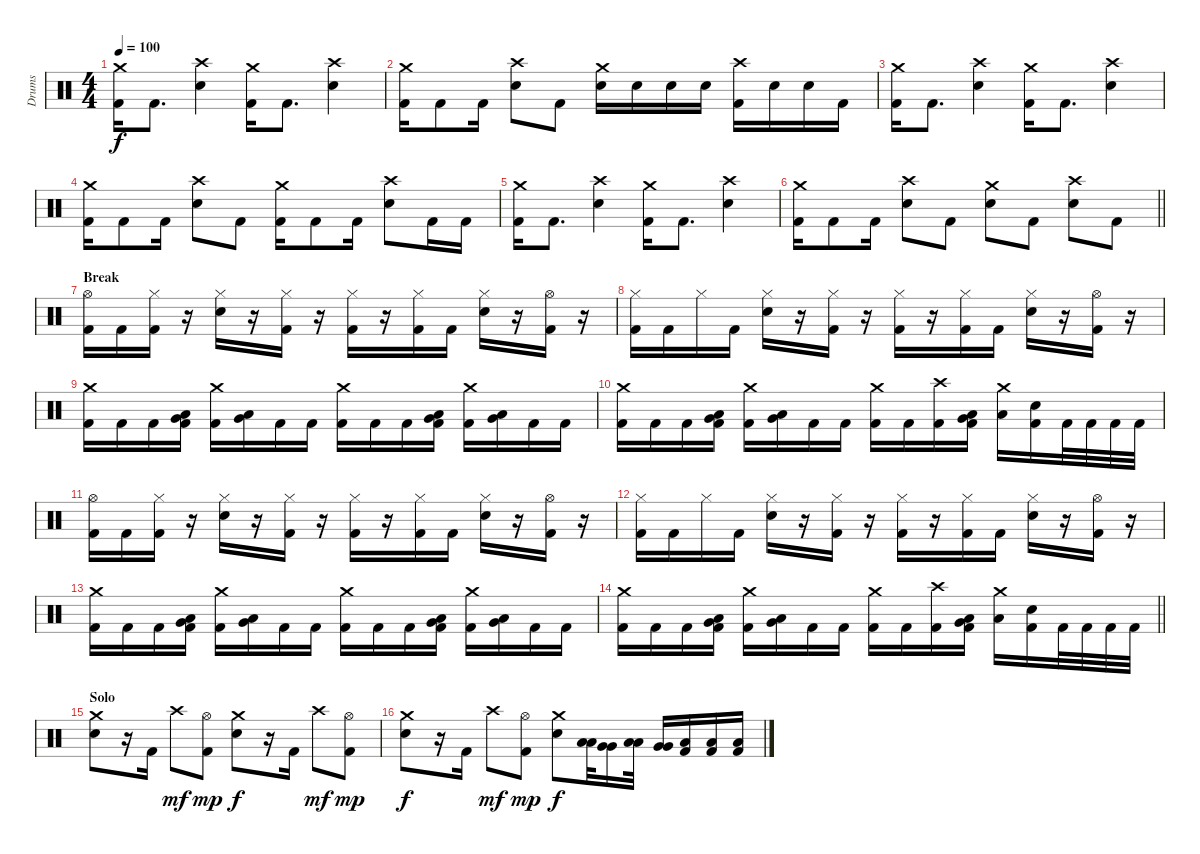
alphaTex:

\track ("Drums" "Drums") {instrument percussion}
\staff {score}
\articulation defaults
\ts (4 4)
\tempo 100
\clef neutral
\ks c
("Crash medium (hit)" "Kick (hit) 2").16{dy f} "Kick (hit) 2".8{d} ("Crash high (hit)" "Electric Snare (hit)").4 ("Crash medium (hit)" "Kick (hit) 2").16 "Kick (hit) 2".8{d} ("Crash high (hit)" "Electric Snare (hit)").4 |
("Crash medium (hit)" "Kick (hit) 2").16 "Kick (hit) 2".8 "Kick (hit) 2".16 ("Crash high (hit)" "Electric Snare (hit)").8 "Kick (hit) 2".8 ("Crash medium (hit)" "Electric Snare (hit)").16 "Electric Snare (hit)".16 "Electric Snare (hit)".16 "Electric Snare (hit)".16 ("Crash high (hit)" "Kick (hit) 2").16 "Electric Snare (hit)".16 "Electric Snare (hit)".16 "Kick (hit) 2".16 |
("Crash medium (hit)" "Kick (hit) 2").16 "Kick (hit) 2".8{d} ("Crash high (hit)" "Electric Snare (hit)").4 ("Crash medium (hit)" "Kick (hit) 2").16 "Kick (hit) 2".8{d} ("Crash high (hit)" "Electric Snare (hit)").4 |
("Crash medium (hit)" "Kick (hit) 2").16 "Kick (hit) 2".8 "Kick (hit) 2".16 ("Crash high (hit)" "Electric Snare (hit)").8 "Kick (hit) 2".8 ("Crash medium (hit)" "Kick (hit) 2").16 "Kick (hit) 2".8 "Kick (hit) 2".16 ("Crash high (hit)" "Electric Snare (hit)").8 "Kick (hit) 2".16 "Kick (hit) 2".16 |
("Crash medium (hit)" "Kick (hit) 2").16 "Kick (hit) 2".8{d} ("Crash high (hit)" "Electric Snare (hit)").4 ("Crash medium (hit)" "Kick (hit) 2").16 "Kick (hit) 2".8{d} ("Crash high (hit)" "Electric Snare (hit)").4 |
\barLineRight lightlight
("Crash medium (hit)" "Kick (hit) 2").16 "Kick (hit) 2".8 "Kick (hit) 2".16 ("Crash high (hit)" "Electric Snare (hit)").8 "Kick (hit) 2".8 ("Crash medium (hit)" "Electric Snare (hit)").8 "Kick (hit) 2".8 ("Crash high (hit)" "Electric Snare (hit)").8 "Kick (hit) 2".8 |
\section ("" "Break")
("Hi-Hat (open)" "Kick (hit) 2").16 "Kick (hit) 2".16 ("Hi-Hat (closed)" "Kick (hit) 2").16 r.16 ("Hi-Hat (closed)" "Electric Snare (hit)").16 r.16 ("Hi-Hat (closed)" "Kick (hit) 2").16 r.16 ("Hi-Hat (closed)" "Kick (hit) 2").16 r.16 ("Hi-Hat (closed)" "Kick (hit) 2").16 "Kick (hit) 2".16 ("Hi-Hat (closed)" "Electric Snare (hit)").16 r.16 ("Hi-Hat (open)" "Kick (hit) 2").16 r.16 |
("Hi-Hat (closed)" "Kick (hit) 2").16 "Kick (hit) 2".16 "Hi-Hat (closed)".16 "Kick (hit) 2".16 ("Hi-Hat (closed)" "Electric Snare (hit)").16 r.16 ("Hi-Hat (closed)" "Kick (hit) 2").16 r.16 ("Hi-Hat (closed)" "Kick (hit) 2").16 r.16 ("Hi-Hat (closed)" "Kick (hit) 2").16 "Kick (hit) 2".16 ("Hi-Hat (closed)" "Electric Snare (hit)").16 r.16 ("Hi-Hat (open)" "Kick (hit) 2").16 r.16 |
("Crash medium (hit)" "Kick (hit) 2").16 "Kick (hit) 2".16 "Kick (hit) 2".16 ("Low Tom (hit)" "Very Low Tom (hit)" "Kick (hit) 2").16 ("Crash medium (hit)" "Kick (hit) 2").16 ("Low Floor Tom (hit)" "Very Low Tom (hit)").16 "Kick (hit) 2".16 "Kick (hit) 2".16 ("Crash medium (hit)" "Kick (hit) 2").16 "Kick (hit) 2".16 "Kick (hit) 2".16 ("Low Tom (hit)" "Very Low Tom (hit)" "Kick (hit) 2").16 ("Crash medium (hit)" "Kick (hit) 2").16 ("Low Floor Tom (hit)" "Very Low Tom (hit)").16 "Kick (hit) 2".16 "Kick (hit) 2".16 |
("Crash medium (hit)" "Kick (hit) 2").16 "Kick (hit) 2".16 "Kick (hit) 2".16 ("Low Tom (hit)" "Very Low Tom (hit)" "Kick (hit) 2").16 ("Crash medium (hit)" "Kick (hit) 2").16 ("Low Floor Tom (hit)" "Very Low Tom (hit)").16 "Kick (hit) 2".16 "Kick (hit) 2".16 ("Crash medium (hit)" "Kick (hit) 2").16 "Kick (hit) 2".16 ("Crash high (hit)" "Kick (hit) 2").16 ("Low Tom (hit)" "Very Low Tom (hit)" "Kick (hit) 2").16 ("Crash medium (hit)" "Low Floor Tom (hit)").16 ("Electric Snare (hit)" "Kick (hit) 2").16 "Kick (hit) 2".32 "Kick (hit) 2".32 "Kick (hit) 2".32 "Kick (hit) 2".32 |
("Hi-Hat (open)" "Kick (hit) 2").16 "Kick (hit) 2".16 ("Hi-Hat (closed)" "Kick (hit) 2").16 r.16 ("Hi-Hat (closed)" "Electric Snare (hit)").16 r.16 ("Hi-Hat (closed)" "Kick (hit) 2").16 r.16 ("Hi-Hat (closed)" "Kick (hit) 2").16 r.16 ("Hi-Hat (closed)" "Kick (hit) 2").16 "Kick (hit) 2".16 ("Hi-Hat (closed)" "Electric Snare (hit)").16 r.16 ("Hi-Hat (open)" "Kick (hit) 2").16 r.16 |
("Hi-Hat (closed)" "Kick (hit) 2").16 "Kick (hit) 2".16 "Hi-Hat (closed)".16 "Kick (hit) 2".16 ("Hi-Hat (closed)" "Electric Snare (hit)").16 r.16 ("Hi-Hat (closed)" "Kick (hit) 2").16 r.16 ("Hi-Hat (closed)" "Kick (hit) 2").16 r.16 ("Hi-Hat (closed)" "Kick (hit) 2").16 "Kick (hit) 2".16 ("Hi-Hat (closed)" "Electric Snare (hit)").16 r.16 ("Hi-Hat (open)" "Kick (hit) 2").16 r.16 |
("Crash medium (hit)" "Kick (hit) 2").16 "Kick (hit) 2".16 "Kick (hit) 2".16 ("Low Tom (hit)" "Very Low Tom (hit)" "Kick (hit) 2").16 ("Crash medium (hit)" "Kick (hit) 2").16 ("Low Floor Tom (hit)" "Very Low Tom (hit)").16 "Kick (hit) 2".16 "Kick (hit) 2".16 ("Crash medium (hit)" "Kick (hit) 2").16 "Kick (hit) 2".16 "Kick (hit) 2".16 ("Low Tom (hit)" "Very Low Tom (hit)" "Kick (hit) 2").16 ("Crash medium (hit)" "Kick (hit) 2").16 ("Low Floor Tom (hit)" "Very Low Tom (hit)").16 "Kick (hit) 2".16 "Kick (hit) 2".16 |
\barLineRight lightlight
("Crash medium (hit)" "Kick (hit) 2").16 "Kick (hit) 2".16 "Kick (hit) 2".16 ("Low Tom (hit)" "Very Low Tom (hit)" "Kick (hit) 2").16 ("Crash medium (hit)" "Kick (hit) 2").16 ("Low Floor Tom (hit)" "Very Low Tom (hit)").16 "Kick (hit) 2".16 "Kick (hit) 2".16 ("Crash medium (hit)" "Kick (hit) 2").16 "Kick (hit) 2".16 ("Crash high (hit)" "Kick (hit) 2").16 ("Low Tom (hit)" "Very Low Tom (hit)" "Kick (hit) 2").16 ("Crash medium (hit)" "Low Floor Tom (hit)").16 ("Electric Snare (hit)" "Kick (hit) 2").16 "Kick (hit) 2".32 "Kick (hit) 2".32 "Kick (hit) 2".32 "Kick (hit) 2".32 |
\section ("" "Solo")
("Crash medium (hit)" "Electric Snare (hit)").8 r.16 "Kick (hit) 2".16 "Crash high (hit)".8{dy mf} ("Hi-Hat (open)" "Kick (hit) 2").8{dy mp} ("Crash medium (hit)" "Electric Snare (hit)").8{dy f} r.16 "Kick (hit) 2".16 "Crash high (hit)".8{dy mf} ("Hi-Hat (open)" "Kick (hit) 2").8{dy mp} |
("Crash medium (hit)" "Electric Snare (hit)").8{dy f} r.16 "Kick (hit) 2".16 "Crash high (hit)".8{dy mf} ("Hi-Hat (open)" "Kick (hit) 2").8{dy mp} ("Crash medium (hit)" "Electric Snare (hit)").8{dy f} ("Low Tom (hit)" "Low Tom (hit)").32 ("Very Low Tom (hit)" "Very Low Tom (hit)").16 ("Low Tom (hit)" "Low Tom (hit)").32 ("Very Low Tom (hit)" "Very Low Tom (hit)").16 ("Low Tom (hit)" "Kick (hit) 2").16 ("Low Tom (hit)" "Kick (hit) 2").16 ("Low Tom (hit)" "Kick (hit) 2").16
